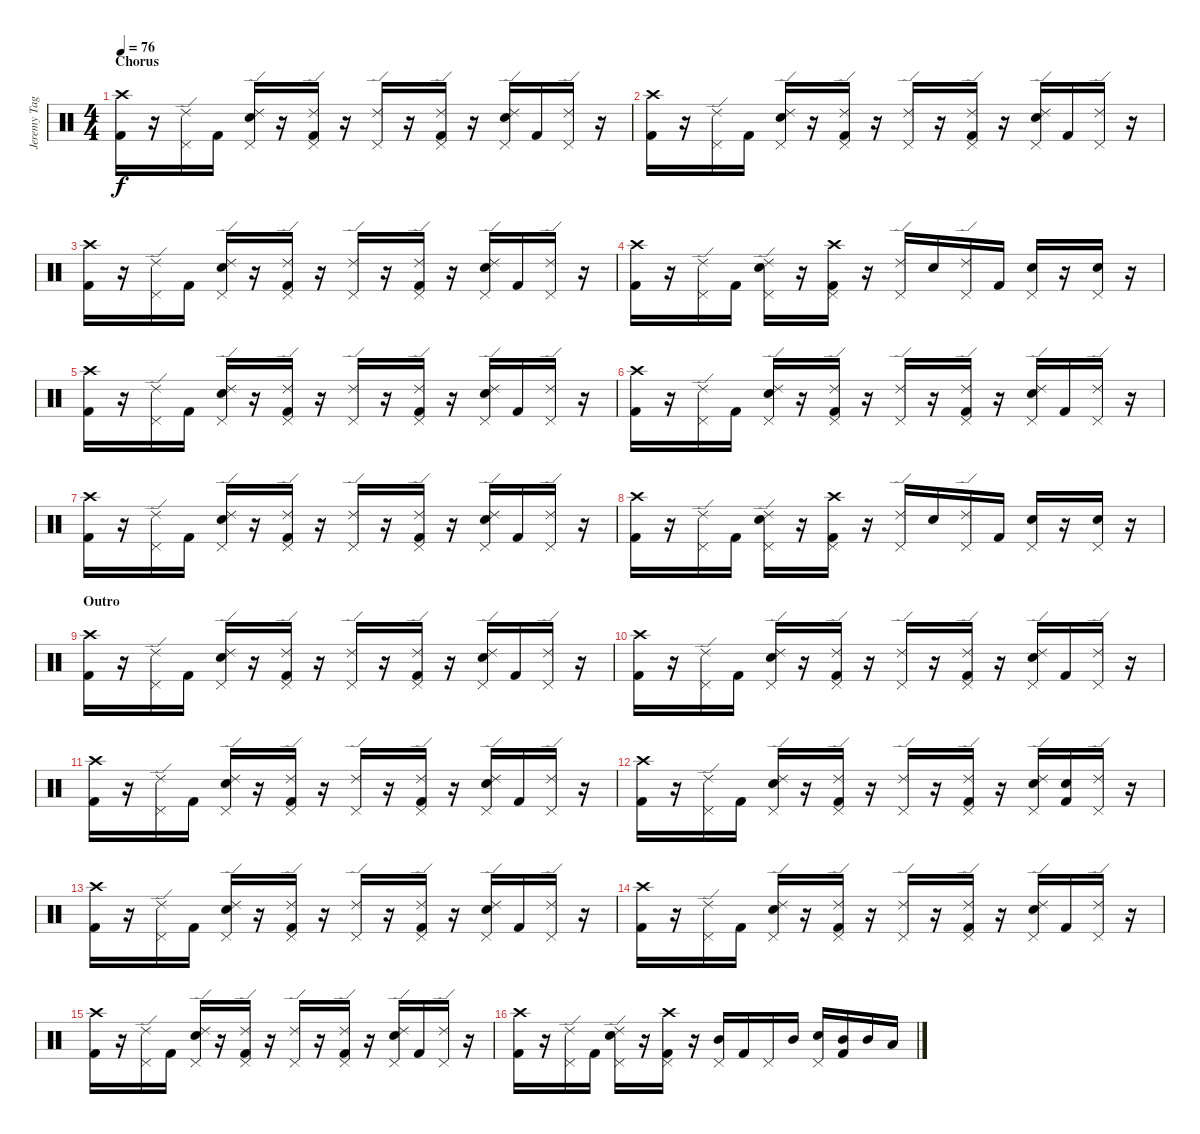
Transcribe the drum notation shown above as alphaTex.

\track ("Jeremy Taggart(Drums)" "Jeremy Tag") {instrument percussion}
\staff {score}
\articulation defaults
\ts (4 4)
\section ("" "Chorus")
\tempo 76
\clef neutral
\ks c
("Crash high (hit)" "Kick (hit) 2").16{dy f} r.16 ("Ride (edge) 2" "Pedal Hi-Hat (hit)").16 "Kick (hit) 2".16 ("Ride (edge) 2" "Snare (hit) 2" "Pedal Hi-Hat (hit)").16 r.16 ("Ride (edge) 2" "Pedal Hi-Hat (hit)" "Kick (hit) 2").16 r.16 ("Ride (edge) 2" "Pedal Hi-Hat (hit)").16 r.16 ("Ride (edge) 2" "Pedal Hi-Hat (hit)" "Kick (hit) 2").16 r.16 ("Ride (edge) 2" "Snare (hit) 2" "Pedal Hi-Hat (hit)").16 "Kick (hit) 2".16 ("Ride (edge) 2" "Pedal Hi-Hat (hit)").16 r.16 |
("Crash high (hit)" "Kick (hit) 2").16 r.16 ("Ride (edge) 2" "Pedal Hi-Hat (hit)").16 "Kick (hit) 2".16 ("Ride (edge) 2" "Snare (hit) 2" "Pedal Hi-Hat (hit)").16 r.16 ("Ride (edge) 2" "Pedal Hi-Hat (hit)" "Kick (hit) 2").16 r.16 ("Ride (edge) 2" "Pedal Hi-Hat (hit)").16 r.16 ("Ride (edge) 2" "Pedal Hi-Hat (hit)" "Kick (hit) 2").16 r.16 ("Ride (edge) 2" "Snare (hit) 2" "Pedal Hi-Hat (hit)").16 "Kick (hit) 2".16 ("Ride (edge) 2" "Pedal Hi-Hat (hit)").16 r.16 |
("Crash high (hit)" "Kick (hit) 2").16 r.16 ("Ride (edge) 2" "Pedal Hi-Hat (hit)").16 "Kick (hit) 2".16 ("Ride (edge) 2" "Snare (hit) 2" "Pedal Hi-Hat (hit)").16 r.16 ("Ride (edge) 2" "Pedal Hi-Hat (hit)" "Kick (hit) 2").16 r.16 ("Ride (edge) 2" "Pedal Hi-Hat (hit)").16 r.16 ("Ride (edge) 2" "Pedal Hi-Hat (hit)" "Kick (hit) 2").16 r.16 ("Ride (edge) 2" "Snare (hit) 2" "Pedal Hi-Hat (hit)").16 "Kick (hit) 2".16 ("Ride (edge) 2" "Pedal Hi-Hat (hit)").16 r.16 |
("Crash high (hit)" "Kick (hit) 2").16 r.16 ("Ride (edge) 2" "Pedal Hi-Hat (hit)").16 "Kick (hit) 2".16 ("Ride (edge) 2" "Snare (hit) 2" "Pedal Hi-Hat (hit)").16 r.16 ("Crash high (hit)" "Pedal Hi-Hat (hit)" "Kick (hit) 2").16 r.16 ("Ride (edge) 2" "Pedal Hi-Hat (hit)").16 "Snare (hit) 2".16 ("Ride (edge) 2" "Pedal Hi-Hat (hit)").16 "Kick (hit) 2".16 ("Pedal Hi-Hat (hit)" "Snare (hit) 2").16 r.16 ("Pedal Hi-Hat (hit)" "Snare (hit) 2").16 r.16 |
("Crash high (hit)" "Kick (hit) 2").16 r.16 ("Ride (edge) 2" "Pedal Hi-Hat (hit)").16 "Kick (hit) 2".16 ("Ride (edge) 2" "Snare (hit) 2" "Pedal Hi-Hat (hit)").16 r.16 ("Ride (edge) 2" "Pedal Hi-Hat (hit)" "Kick (hit) 2").16 r.16 ("Ride (edge) 2" "Pedal Hi-Hat (hit)").16 r.16 ("Ride (edge) 2" "Pedal Hi-Hat (hit)" "Kick (hit) 2").16 r.16 ("Ride (edge) 2" "Snare (hit) 2" "Pedal Hi-Hat (hit)").16 "Kick (hit) 2".16 ("Ride (edge) 2" "Pedal Hi-Hat (hit)").16 r.16 |
("Crash high (hit)" "Kick (hit) 2").16 r.16 ("Ride (edge) 2" "Pedal Hi-Hat (hit)").16 "Kick (hit) 2".16 ("Ride (edge) 2" "Snare (hit) 2" "Pedal Hi-Hat (hit)").16 r.16 ("Ride (edge) 2" "Pedal Hi-Hat (hit)" "Kick (hit) 2").16 r.16 ("Ride (edge) 2" "Pedal Hi-Hat (hit)").16 r.16 ("Ride (edge) 2" "Pedal Hi-Hat (hit)" "Kick (hit) 2").16 r.16 ("Ride (edge) 2" "Snare (hit) 2" "Pedal Hi-Hat (hit)").16 "Kick (hit) 2".16 ("Ride (edge) 2" "Pedal Hi-Hat (hit)").16 r.16 |
("Crash high (hit)" "Kick (hit) 2").16 r.16 ("Ride (edge) 2" "Pedal Hi-Hat (hit)").16 "Kick (hit) 2".16 ("Ride (edge) 2" "Snare (hit) 2" "Pedal Hi-Hat (hit)").16 r.16 ("Ride (edge) 2" "Pedal Hi-Hat (hit)" "Kick (hit) 2").16 r.16 ("Ride (edge) 2" "Pedal Hi-Hat (hit)").16 r.16 ("Ride (edge) 2" "Pedal Hi-Hat (hit)" "Kick (hit) 2").16 r.16 ("Ride (edge) 2" "Snare (hit) 2" "Pedal Hi-Hat (hit)").16 "Kick (hit) 2".16 ("Ride (edge) 2" "Pedal Hi-Hat (hit)").16 r.16 |
("Crash high (hit)" "Kick (hit) 2").16 r.16 ("Ride (edge) 2" "Pedal Hi-Hat (hit)").16 "Kick (hit) 2".16 ("Ride (edge) 2" "Snare (hit) 2" "Pedal Hi-Hat (hit)").16 r.16 ("Crash high (hit)" "Pedal Hi-Hat (hit)" "Kick (hit) 2").16 r.16 ("Ride (edge) 2" "Pedal Hi-Hat (hit)").16 "Snare (hit) 2".16 ("Ride (edge) 2" "Pedal Hi-Hat (hit)").16 "Kick (hit) 2".16 ("Pedal Hi-Hat (hit)" "Snare (hit) 2").16 r.16 ("Pedal Hi-Hat (hit)" "Snare (hit) 2").16 r.16 |
\section ("" "Outro")
("Crash high (hit)" "Kick (hit) 2").16 r.16 ("Ride (edge) 2" "Pedal Hi-Hat (hit)").16 "Kick (hit) 2".16 ("Ride (edge) 2" "Snare (hit) 2" "Pedal Hi-Hat (hit)").16 r.16 ("Ride (edge) 2" "Pedal Hi-Hat (hit)" "Kick (hit) 2").16 r.16 ("Ride (edge) 2" "Pedal Hi-Hat (hit)").16 r.16 ("Ride (edge) 2" "Pedal Hi-Hat (hit)" "Kick (hit) 2").16 r.16 ("Ride (edge) 2" "Snare (hit) 2" "Pedal Hi-Hat (hit)").16 "Kick (hit) 2".16 ("Ride (edge) 2" "Pedal Hi-Hat (hit)").16 r.16 |
("Crash high (hit)" "Kick (hit) 2").16 r.16 ("Ride (edge) 2" "Pedal Hi-Hat (hit)").16 "Kick (hit) 2".16 ("Ride (edge) 2" "Snare (hit) 2" "Pedal Hi-Hat (hit)").16 r.16 ("Ride (edge) 2" "Pedal Hi-Hat (hit)" "Kick (hit) 2").16 r.16 ("Ride (edge) 2" "Pedal Hi-Hat (hit)").16 r.16 ("Ride (edge) 2" "Pedal Hi-Hat (hit)" "Kick (hit) 2").16 r.16 ("Ride (edge) 2" "Snare (hit) 2" "Pedal Hi-Hat (hit)").16 "Kick (hit) 2".16 ("Ride (edge) 2" "Pedal Hi-Hat (hit)").16 r.16 |
("Crash high (hit)" "Kick (hit) 2").16 r.16 ("Ride (edge) 2" "Pedal Hi-Hat (hit)").16 "Kick (hit) 2".16 ("Ride (edge) 2" "Snare (hit) 2" "Pedal Hi-Hat (hit)").16 r.16 ("Ride (edge) 2" "Pedal Hi-Hat (hit)" "Kick (hit) 2").16 r.16 ("Ride (edge) 2" "Pedal Hi-Hat (hit)").16 r.16 ("Ride (edge) 2" "Pedal Hi-Hat (hit)" "Kick (hit) 2").16 r.16 ("Ride (edge) 2" "Snare (hit) 2" "Pedal Hi-Hat (hit)").16 "Kick (hit) 2".16 ("Ride (edge) 2" "Pedal Hi-Hat (hit)").16 r.16 |
("Crash high (hit)" "Kick (hit) 2").16 r.16 ("Ride (edge) 2" "Pedal Hi-Hat (hit)").16 "Kick (hit) 2".16 ("Ride (edge) 2" "Snare (hit) 2" "Pedal Hi-Hat (hit)").16 r.16 ("Ride (edge) 2" "Pedal Hi-Hat (hit)" "Kick (hit) 2").16 r.16 ("Ride (edge) 2" "Pedal Hi-Hat (hit)").16 r.16 ("Ride (edge) 2" "Pedal Hi-Hat (hit)" "Kick (hit) 2").16 r.16 ("Ride (edge) 2" "Snare (hit) 2" "Pedal Hi-Hat (hit)").16 ("Snare (hit) 2" "Kick (hit) 2").16 ("Ride (edge) 2" "Pedal Hi-Hat (hit)").16 r.16 |
("Crash high (hit)" "Kick (hit) 2").16 r.16 ("Ride (edge) 2" "Pedal Hi-Hat (hit)").16 "Kick (hit) 2".16 ("Ride (edge) 2" "Snare (hit) 2" "Pedal Hi-Hat (hit)").16 r.16 ("Ride (edge) 2" "Pedal Hi-Hat (hit)" "Kick (hit) 2").16 r.16 ("Ride (edge) 2" "Pedal Hi-Hat (hit)").16 r.16 ("Ride (edge) 2" "Pedal Hi-Hat (hit)" "Kick (hit) 2").16 r.16 ("Ride (edge) 2" "Snare (hit) 2" "Pedal Hi-Hat (hit)").16 "Kick (hit) 2".16 ("Ride (edge) 2" "Pedal Hi-Hat (hit)").16 r.16 |
("Crash high (hit)" "Kick (hit) 2").16 r.16 ("Ride (edge) 2" "Pedal Hi-Hat (hit)").16 "Kick (hit) 2".16 ("Ride (edge) 2" "Snare (hit) 2" "Pedal Hi-Hat (hit)").16 r.16 ("Ride (edge) 2" "Pedal Hi-Hat (hit)" "Kick (hit) 2").16 r.16 ("Ride (edge) 2" "Pedal Hi-Hat (hit)").16 r.16 ("Ride (edge) 2" "Pedal Hi-Hat (hit)" "Kick (hit) 2").16 r.16 ("Ride (edge) 2" "Snare (hit) 2" "Pedal Hi-Hat (hit)").16 "Kick (hit) 2".16 ("Ride (edge) 2" "Pedal Hi-Hat (hit)").16 r.16 |
("Crash high (hit)" "Kick (hit) 2").16 r.16 ("Ride (edge) 2" "Pedal Hi-Hat (hit)").16 "Kick (hit) 2".16 ("Ride (edge) 2" "Snare (hit) 2" "Pedal Hi-Hat (hit)").16 r.16 ("Ride (edge) 2" "Pedal Hi-Hat (hit)" "Kick (hit) 2").16 r.16 ("Ride (edge) 2" "Pedal Hi-Hat (hit)").16 r.16 ("Ride (edge) 2" "Pedal Hi-Hat (hit)" "Kick (hit) 2").16 r.16 ("Ride (edge) 2" "Snare (hit) 2" "Pedal Hi-Hat (hit)").16 "Kick (hit) 2".16 ("Ride (edge) 2" "Pedal Hi-Hat (hit)").16 r.16 |
("Crash high (hit)" "Kick (hit) 2").16 r.16 ("Ride (edge) 2" "Pedal Hi-Hat (hit)").16 "Kick (hit) 2".16 ("Ride (edge) 2" "Snare (hit) 2" "Pedal Hi-Hat (hit)").16 r.16 ("Crash high (hit)" "Pedal Hi-Hat (hit)" "Kick (hit) 2").16 r.16 ("Pedal Hi-Hat (hit)" "Mid Tom (hit)").16 "Kick (hit) 2".16 "Pedal Hi-Hat (hit)".16 "Mid Tom (hit)".16 ("Pedal Hi-Hat (hit)" "Snare (hit) 2").16 ("Mid Tom (hit)" "Kick (hit) 2").16 "Mid Tom (hit)".16 "Low Tom (hit)".16
